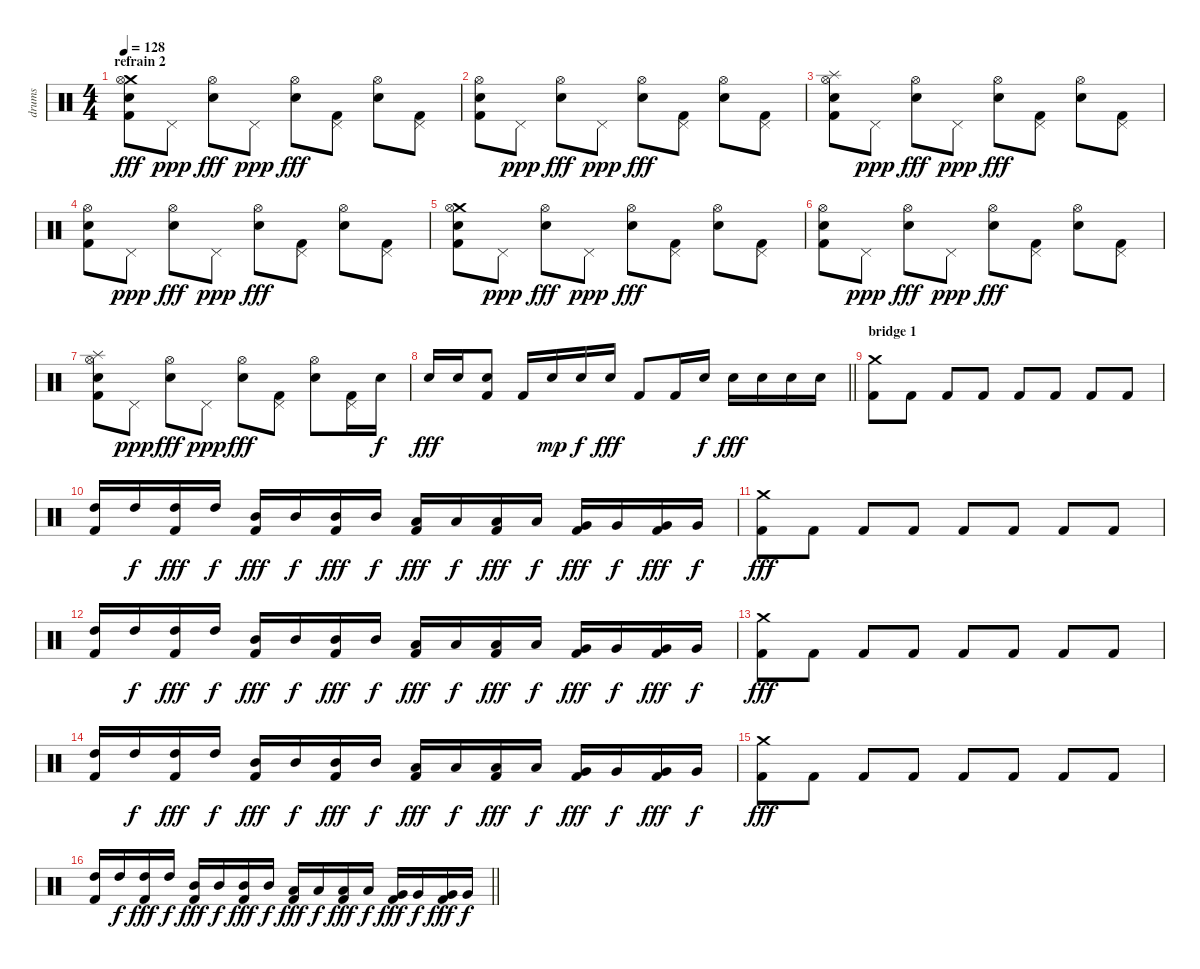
\track ("drums" "drums") {instrument percussion}
\staff {score}
\articulation defaults
\ts (4 4)
\section ("" "refrain 2")
\tempo 128
\clef neutral
\ks c
("Crash medium (hit)" "Hi-Hat (open)" "Electric Snare (hit)" "Kick (hit) 2").8{dy fff} "Pedal Hi-Hat (hit)".8{dy ppp} ("Hi-Hat (open)" "Electric Snare (hit)").8{dy fff} "Pedal Hi-Hat (hit)".8{dy ppp} ("Hi-Hat (open)" "Electric Snare (hit)").8{dy fff} ("Pedal Hi-Hat (hit)" "Kick (hit) 2").8 ("Hi-Hat (open)" "Electric Snare (hit)").8 ("Pedal Hi-Hat (hit)" "Kick (hit) 2").8 |
("Hi-Hat (open)" "Electric Snare (hit)" "Kick (hit) 2").8 "Pedal Hi-Hat (hit)".8{dy ppp} ("Hi-Hat (open)" "Electric Snare (hit)").8{dy fff} "Pedal Hi-Hat (hit)".8{dy ppp} ("Hi-Hat (open)" "Electric Snare (hit)").8{dy fff} ("Pedal Hi-Hat (hit)" "Kick (hit) 2").8 ("Hi-Hat (open)" "Electric Snare (hit)").8 ("Pedal Hi-Hat (hit)" "Kick (hit) 2").8 |
("Splash (hit)" "Hi-Hat (open)" "Electric Snare (hit)" "Kick (hit) 2").8 "Pedal Hi-Hat (hit)".8{dy ppp} ("Hi-Hat (open)" "Electric Snare (hit)").8{dy fff} "Pedal Hi-Hat (hit)".8{dy ppp} ("Hi-Hat (open)" "Electric Snare (hit)").8{dy fff} ("Pedal Hi-Hat (hit)" "Kick (hit) 2").8 ("Hi-Hat (open)" "Electric Snare (hit)").8 ("Pedal Hi-Hat (hit)" "Kick (hit) 2").8 |
("Hi-Hat (open)" "Electric Snare (hit)" "Kick (hit) 2").8 "Pedal Hi-Hat (hit)".8{dy ppp} ("Hi-Hat (open)" "Electric Snare (hit)").8{dy fff} "Pedal Hi-Hat (hit)".8{dy ppp} ("Hi-Hat (open)" "Electric Snare (hit)").8{dy fff} ("Pedal Hi-Hat (hit)" "Kick (hit) 2").8 ("Hi-Hat (open)" "Electric Snare (hit)").8 ("Pedal Hi-Hat (hit)" "Kick (hit) 2").8 |
("Crash medium (hit)" "Hi-Hat (open)" "Electric Snare (hit)" "Kick (hit) 2").8 "Pedal Hi-Hat (hit)".8{dy ppp} ("Hi-Hat (open)" "Electric Snare (hit)").8{dy fff} "Pedal Hi-Hat (hit)".8{dy ppp} ("Hi-Hat (open)" "Electric Snare (hit)").8{dy fff} ("Pedal Hi-Hat (hit)" "Kick (hit) 2").8 ("Hi-Hat (open)" "Electric Snare (hit)").8 ("Pedal Hi-Hat (hit)" "Kick (hit) 2").8 |
("Hi-Hat (open)" "Electric Snare (hit)" "Kick (hit) 2").8 "Pedal Hi-Hat (hit)".8{dy ppp} ("Hi-Hat (open)" "Electric Snare (hit)").8{dy fff} "Pedal Hi-Hat (hit)".8{dy ppp} ("Hi-Hat (open)" "Electric Snare (hit)").8{dy fff} ("Pedal Hi-Hat (hit)" "Kick (hit) 2").8 ("Hi-Hat (open)" "Electric Snare (hit)").8 ("Pedal Hi-Hat (hit)" "Kick (hit) 2").8 |
("Splash (hit)" "Hi-Hat (open)" "Electric Snare (hit)" "Kick (hit) 2").8 "Pedal Hi-Hat (hit)".8{dy ppp} ("Hi-Hat (open)" "Electric Snare (hit)").8{dy fff} "Pedal Hi-Hat (hit)".8{dy ppp} ("Hi-Hat (open)" "Electric Snare (hit)").8{dy fff} ("Pedal Hi-Hat (hit)" "Kick (hit) 2").8 ("Hi-Hat (open)" "Electric Snare (hit)").8 ("Pedal Hi-Hat (hit)" "Kick (hit) 2").16 "Electric Snare (hit)".16{dy f} |
\barLineRight lightlight "Electric Snare (hit)".16{dy fff} "Electric Snare (hit)".16
("Electric Snare (hit)" "Kick (hit) 2").8 "Kick (hit) 2".16 "Electric Snare (hit)".16{dy mp} "Electric Snare (hit)".16{dy f} "Electric Snare (hit)".16{dy fff} "Kick (hit) 2".8 "Kick (hit) 2".16 "Electric Snare (hit)".16{dy f} "Electric Snare (hit)".16{dy fff} "Electric Snare (hit)".16 "Electric Snare (hit)".16 "Electric Snare (hit)".16 |
\section ("" "bridge 1")
("Crash medium (hit)" "Kick (hit) 2").8 "Kick (hit) 2".8 "Kick (hit) 2".8 "Kick (hit) 2".8 "Kick (hit) 2".8 "Kick (hit) 2".8 "Kick (hit) 2".8 "Kick (hit) 2".8 |
("High Tom (hit)" "Kick (hit) 2").16 "High Tom (hit)".16{dy f} ("High Tom (hit)" "Kick (hit) 2").16{dy fff} "High Tom (hit)".16{dy f} ("Mid Tom (hit)" "Kick (hit) 2").16{dy fff} "Mid Tom (hit)".16{dy f} ("Mid Tom (hit)" "Kick (hit) 2").16{dy fff} "Mid Tom (hit)".16{dy f} ("Low Tom (hit)" "Kick (hit) 2").16{dy fff} "Low Tom (hit)".16{dy f} ("Low Tom (hit)" "Kick (hit) 2").16{dy fff} "Low Tom (hit)".16{dy f} ("Very Low Tom (hit)" "Kick (hit) 2").16{dy fff} "Very Low Tom (hit)".16{dy f} ("Very Low Tom (hit)" "Kick (hit) 2").16{dy fff} "Very Low Tom (hit)".16{dy f} |
("Crash medium (hit)" "Kick (hit) 2").8{dy fff} "Kick (hit) 2".8 "Kick (hit) 2".8 "Kick (hit) 2".8 "Kick (hit) 2".8 "Kick (hit) 2".8 "Kick (hit) 2".8 "Kick (hit) 2".8 |
("High Tom (hit)" "Kick (hit) 2").16 "High Tom (hit)".16{dy f} ("High Tom (hit)" "Kick (hit) 2").16{dy fff} "High Tom (hit)".16{dy f} ("Mid Tom (hit)" "Kick (hit) 2").16{dy fff} "Mid Tom (hit)".16{dy f} ("Mid Tom (hit)" "Kick (hit) 2").16{dy fff} "Mid Tom (hit)".16{dy f} ("Low Tom (hit)" "Kick (hit) 2").16{dy fff} "Low Tom (hit)".16{dy f} ("Low Tom (hit)" "Kick (hit) 2").16{dy fff} "Low Tom (hit)".16{dy f} ("Very Low Tom (hit)" "Kick (hit) 2").16{dy fff} "Very Low Tom (hit)".16{dy f} ("Very Low Tom (hit)" "Kick (hit) 2").16{dy fff} "Very Low Tom (hit)".16{dy f} |
("Crash medium (hit)" "Kick (hit) 2").8{dy fff} "Kick (hit) 2".8 "Kick (hit) 2".8 "Kick (hit) 2".8 "Kick (hit) 2".8 "Kick (hit) 2".8 "Kick (hit) 2".8 "Kick (hit) 2".8 |
("High Tom (hit)" "Kick (hit) 2").16 "High Tom (hit)".16{dy f} ("High Tom (hit)" "Kick (hit) 2").16{dy fff} "High Tom (hit)".16{dy f} ("Mid Tom (hit)" "Kick (hit) 2").16{dy fff} "Mid Tom (hit)".16{dy f} ("Mid Tom (hit)" "Kick (hit) 2").16{dy fff} "Mid Tom (hit)".16{dy f} ("Low Tom (hit)" "Kick (hit) 2").16{dy fff} "Low Tom (hit)".16{dy f} ("Low Tom (hit)" "Kick (hit) 2").16{dy fff} "Low Tom (hit)".16{dy f} ("Very Low Tom (hit)" "Kick (hit) 2").16{dy fff} "Very Low Tom (hit)".16{dy f} ("Very Low Tom (hit)" "Kick (hit) 2").16{dy fff} "Very Low Tom (hit)".16{dy f} |
("Crash medium (hit)" "Kick (hit) 2").8{dy fff} "Kick (hit) 2".8 "Kick (hit) 2".8 "Kick (hit) 2".8 "Kick (hit) 2".8 "Kick (hit) 2".8 "Kick (hit) 2".8 "Kick (hit) 2".8 |
\barLineRight lightlight
("High Tom (hit)" "Kick (hit) 2").16 "High Tom (hit)".16{dy f} ("High Tom (hit)" "Kick (hit) 2").16{dy fff} "High Tom (hit)".16{dy f} ("Mid Tom (hit)" "Kick (hit) 2").16{dy fff} "Mid Tom (hit)".16{dy f} ("Mid Tom (hit)" "Kick (hit) 2").16{dy fff} "Mid Tom (hit)".16{dy f} ("Low Tom (hit)" "Kick (hit) 2").16{dy fff} "Low Tom (hit)".16{dy f} ("Low Tom (hit)" "Kick (hit) 2").16{dy fff} "Low Tom (hit)".16{dy f} ("Very Low Tom (hit)" "Kick (hit) 2").16{dy fff} "Very Low Tom (hit)".16{dy f} ("Very Low Tom (hit)" "Kick (hit) 2").16{dy fff} "Very Low Tom (hit)".16{dy f}
